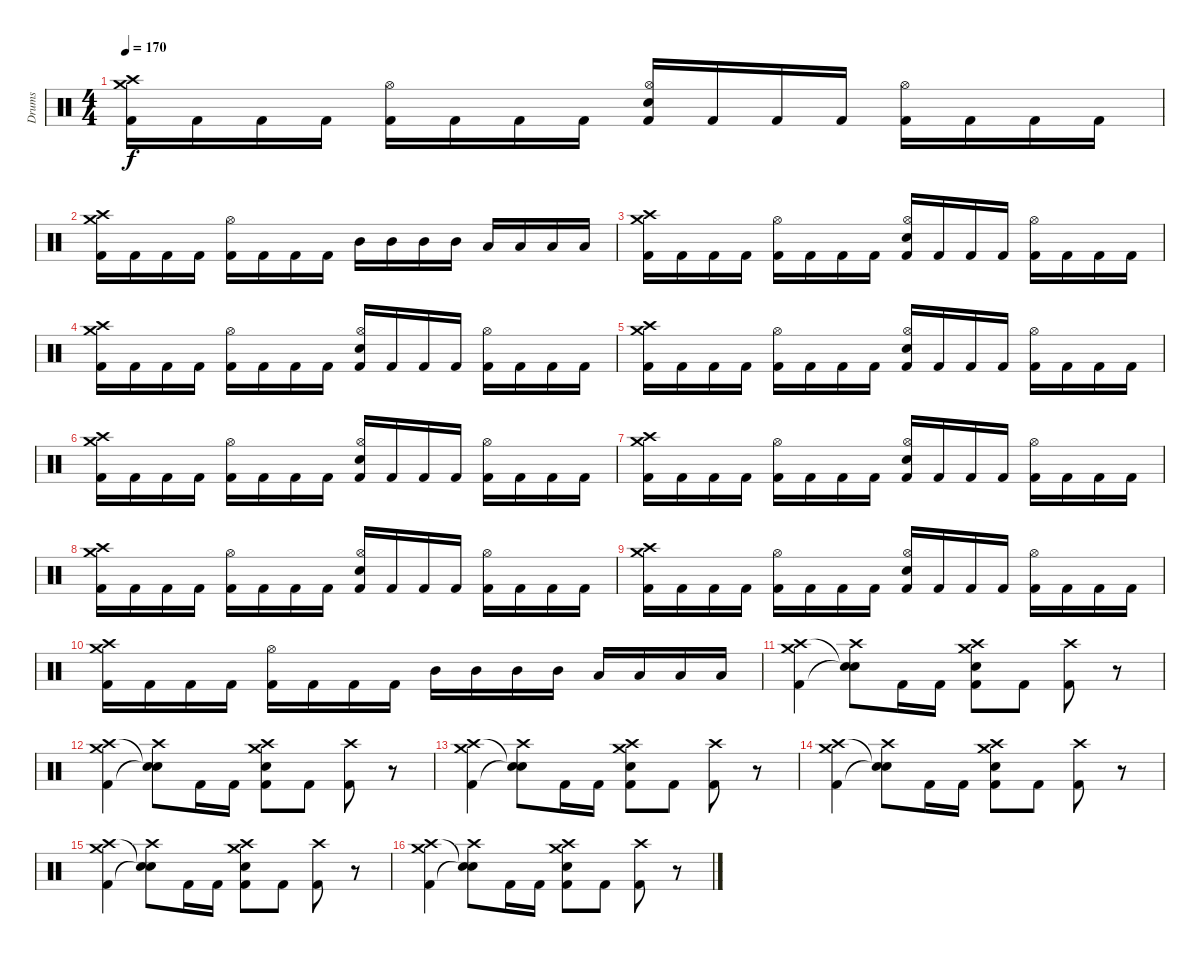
\track ("Drums" "Drums") {instrument percussion}
\staff {score}
\articulation defaults
\ts (4 4)
\tempo 170
\clef neutral
\ks c
("Crash medium (hit)" "Crash high (hit)" "Kick (hit) 2").16{dy f} "Kick (hit) 2".16 "Kick (hit) 2".16 "Kick (hit) 2".16 ("Hi-Hat (open)" "Kick (hit) 2").16 "Kick (hit) 2".16 "Kick (hit) 2".16 "Kick (hit) 2".16 ("Hi-Hat (open)" "Snare (hit) 2" "Kick (hit) 2").16 "Kick (hit) 2".16 "Kick (hit) 2".16 "Kick (hit) 2".16 ("Hi-Hat (open)" "Kick (hit) 2").16 "Kick (hit) 2".16 "Kick (hit) 2".16 "Kick (hit) 2".16 |
("Crash medium (hit)" "Crash high (hit)" "Kick (hit) 2").16 "Kick (hit) 2".16 "Kick (hit) 2".16 "Kick (hit) 2".16 ("Hi-Hat (open)" "Kick (hit) 2").16 "Kick (hit) 2".16 "Kick (hit) 2".16 "Kick (hit) 2".16 "Mid Tom (hit)".16 "Mid Tom (hit)".16 "Mid Tom (hit)".16 "Mid Tom (hit)".16 "Low Tom (hit)".16 "Low Tom (hit)".16 "Low Tom (hit)".16 "Low Tom (hit)".16 |
("Crash medium (hit)" "Crash high (hit)" "Kick (hit) 2").16 "Kick (hit) 2".16 "Kick (hit) 2".16 "Kick (hit) 2".16 ("Hi-Hat (open)" "Kick (hit) 2").16 "Kick (hit) 2".16 "Kick (hit) 2".16 "Kick (hit) 2".16 ("Hi-Hat (open)" "Snare (hit) 2" "Kick (hit) 2").16 "Kick (hit) 2".16 "Kick (hit) 2".16 "Kick (hit) 2".16 ("Hi-Hat (open)" "Kick (hit) 2").16 "Kick (hit) 2".16 "Kick (hit) 2".16 "Kick (hit) 2".16 |
("Crash medium (hit)" "Crash high (hit)" "Kick (hit) 2").16 "Kick (hit) 2".16 "Kick (hit) 2".16 "Kick (hit) 2".16 ("Hi-Hat (open)" "Kick (hit) 2").16 "Kick (hit) 2".16 "Kick (hit) 2".16 "Kick (hit) 2".16 ("Hi-Hat (open)" "Snare (hit) 2" "Kick (hit) 2").16 "Kick (hit) 2".16 "Kick (hit) 2".16 "Kick (hit) 2".16 ("Hi-Hat (open)" "Kick (hit) 2").16 "Kick (hit) 2".16 "Kick (hit) 2".16 "Kick (hit) 2".16 |
("Crash medium (hit)" "Crash high (hit)" "Kick (hit) 2").16 "Kick (hit) 2".16 "Kick (hit) 2".16 "Kick (hit) 2".16 ("Hi-Hat (open)" "Kick (hit) 2").16 "Kick (hit) 2".16 "Kick (hit) 2".16 "Kick (hit) 2".16 ("Hi-Hat (open)" "Snare (hit) 2" "Kick (hit) 2").16 "Kick (hit) 2".16 "Kick (hit) 2".16 "Kick (hit) 2".16 ("Hi-Hat (open)" "Kick (hit) 2").16 "Kick (hit) 2".16 "Kick (hit) 2".16 "Kick (hit) 2".16 |
("Crash medium (hit)" "Crash high (hit)" "Kick (hit) 2").16 "Kick (hit) 2".16 "Kick (hit) 2".16 "Kick (hit) 2".16 ("Hi-Hat (open)" "Kick (hit) 2").16 "Kick (hit) 2".16 "Kick (hit) 2".16 "Kick (hit) 2".16 ("Hi-Hat (open)" "Snare (hit) 2" "Kick (hit) 2").16 "Kick (hit) 2".16 "Kick (hit) 2".16 "Kick (hit) 2".16 ("Hi-Hat (open)" "Kick (hit) 2").16 "Kick (hit) 2".16 "Kick (hit) 2".16 "Kick (hit) 2".16 |
("Crash medium (hit)" "Crash high (hit)" "Kick (hit) 2").16 "Kick (hit) 2".16 "Kick (hit) 2".16 "Kick (hit) 2".16 ("Hi-Hat (open)" "Kick (hit) 2").16 "Kick (hit) 2".16 "Kick (hit) 2".16 "Kick (hit) 2".16 ("Hi-Hat (open)" "Snare (hit) 2" "Kick (hit) 2").16 "Kick (hit) 2".16 "Kick (hit) 2".16 "Kick (hit) 2".16 ("Hi-Hat (open)" "Kick (hit) 2").16 "Kick (hit) 2".16 "Kick (hit) 2".16 "Kick (hit) 2".16 |
("Crash medium (hit)" "Crash high (hit)" "Kick (hit) 2").16 "Kick (hit) 2".16 "Kick (hit) 2".16 "Kick (hit) 2".16 ("Hi-Hat (open)" "Kick (hit) 2").16 "Kick (hit) 2".16 "Kick (hit) 2".16 "Kick (hit) 2".16 ("Hi-Hat (open)" "Snare (hit) 2" "Kick (hit) 2").16 "Kick (hit) 2".16 "Kick (hit) 2".16 "Kick (hit) 2".16 ("Hi-Hat (open)" "Kick (hit) 2").16 "Kick (hit) 2".16 "Kick (hit) 2".16 "Kick (hit) 2".16 |
("Crash medium (hit)" "Crash high (hit)" "Kick (hit) 2").16 "Kick (hit) 2".16 "Kick (hit) 2".16 "Kick (hit) 2".16 ("Hi-Hat (open)" "Kick (hit) 2").16 "Kick (hit) 2".16 "Kick (hit) 2".16 "Kick (hit) 2".16 ("Hi-Hat (open)" "Snare (hit) 2" "Kick (hit) 2").16 "Kick (hit) 2".16 "Kick (hit) 2".16 "Kick (hit) 2".16 ("Hi-Hat (open)" "Kick (hit) 2").16 "Kick (hit) 2".16 "Kick (hit) 2".16 "Kick (hit) 2".16 |
("Crash medium (hit)" "Crash high (hit)" "Kick (hit) 2").16 "Kick (hit) 2".16 "Kick (hit) 2".16 "Kick (hit) 2".16 ("Hi-Hat (open)" "Kick (hit) 2").16 "Kick (hit) 2".16 "Kick (hit) 2".16 "Kick (hit) 2".16 "Mid Tom (hit)".16 "Mid Tom (hit)".16 "Mid Tom (hit)".16 "Mid Tom (hit)".16 "Low Tom (hit)".16 "Low Tom (hit)".16 "Low Tom (hit)".16 "Low Tom (hit)".16 |
("Crash medium (hit)" "Crash high (hit)" "Kick (hit) 2").4 ("Crash high (hit)" "Snare (hit)"{t} "Snare (hit)"{t}).8 "Kick (hit) 2".16 "Kick (hit) 2".16 ("Crash high (hit)" "Snare (hit) 2" "Crash medium (hit)" "Kick (hit) 2").8 "Kick (hit) 2".8 ("Crash high (hit)" "Kick (hit) 2").8 r.8 |
("Crash medium (hit)" "Crash high (hit)" "Kick (hit) 2").4 ("Crash high (hit)" "Snare (hit)"{t} "Snare (hit)"{t}).8 "Kick (hit) 2".16 "Kick (hit) 2".16 ("Crash high (hit)" "Snare (hit) 2" "Crash medium (hit)" "Kick (hit) 2").8 "Kick (hit) 2".8 ("Crash high (hit)" "Kick (hit) 2").8 r.8 |
("Crash medium (hit)" "Crash high (hit)" "Kick (hit) 2").4 ("Crash high (hit)" "Snare (hit)"{t} "Snare (hit)"{t}).8 "Kick (hit) 2".16 "Kick (hit) 2".16 ("Crash high (hit)" "Snare (hit) 2" "Crash medium (hit)" "Kick (hit) 2").8 "Kick (hit) 2".8 ("Crash high (hit)" "Kick (hit) 2").8 r.8 |
("Crash medium (hit)" "Crash high (hit)" "Kick (hit) 2").4 ("Crash high (hit)" "Snare (hit)"{t} "Snare (hit)"{t}).8 "Kick (hit) 2".16 "Kick (hit) 2".16 ("Crash high (hit)" "Snare (hit) 2" "Crash medium (hit)" "Kick (hit) 2").8 "Kick (hit) 2".8 ("Crash high (hit)" "Kick (hit) 2").8 r.8 |
("Crash medium (hit)" "Crash high (hit)" "Kick (hit) 2").4 ("Crash high (hit)" "Snare (hit)"{t} "Snare (hit)"{t}).8 "Kick (hit) 2".16 "Kick (hit) 2".16 ("Crash high (hit)" "Snare (hit) 2" "Crash medium (hit)" "Kick (hit) 2").8 "Kick (hit) 2".8 ("Crash high (hit)" "Kick (hit) 2").8 r.8 |
("Crash medium (hit)" "Crash high (hit)" "Kick (hit) 2").4 ("Crash high (hit)" "Snare (hit)"{t} "Snare (hit)"{t}).8 "Kick (hit) 2".16 "Kick (hit) 2".16 ("Crash high (hit)" "Snare (hit) 2" "Crash medium (hit)" "Kick (hit) 2").8 "Kick (hit) 2".8 ("Crash high (hit)" "Kick (hit) 2").8 r.8
